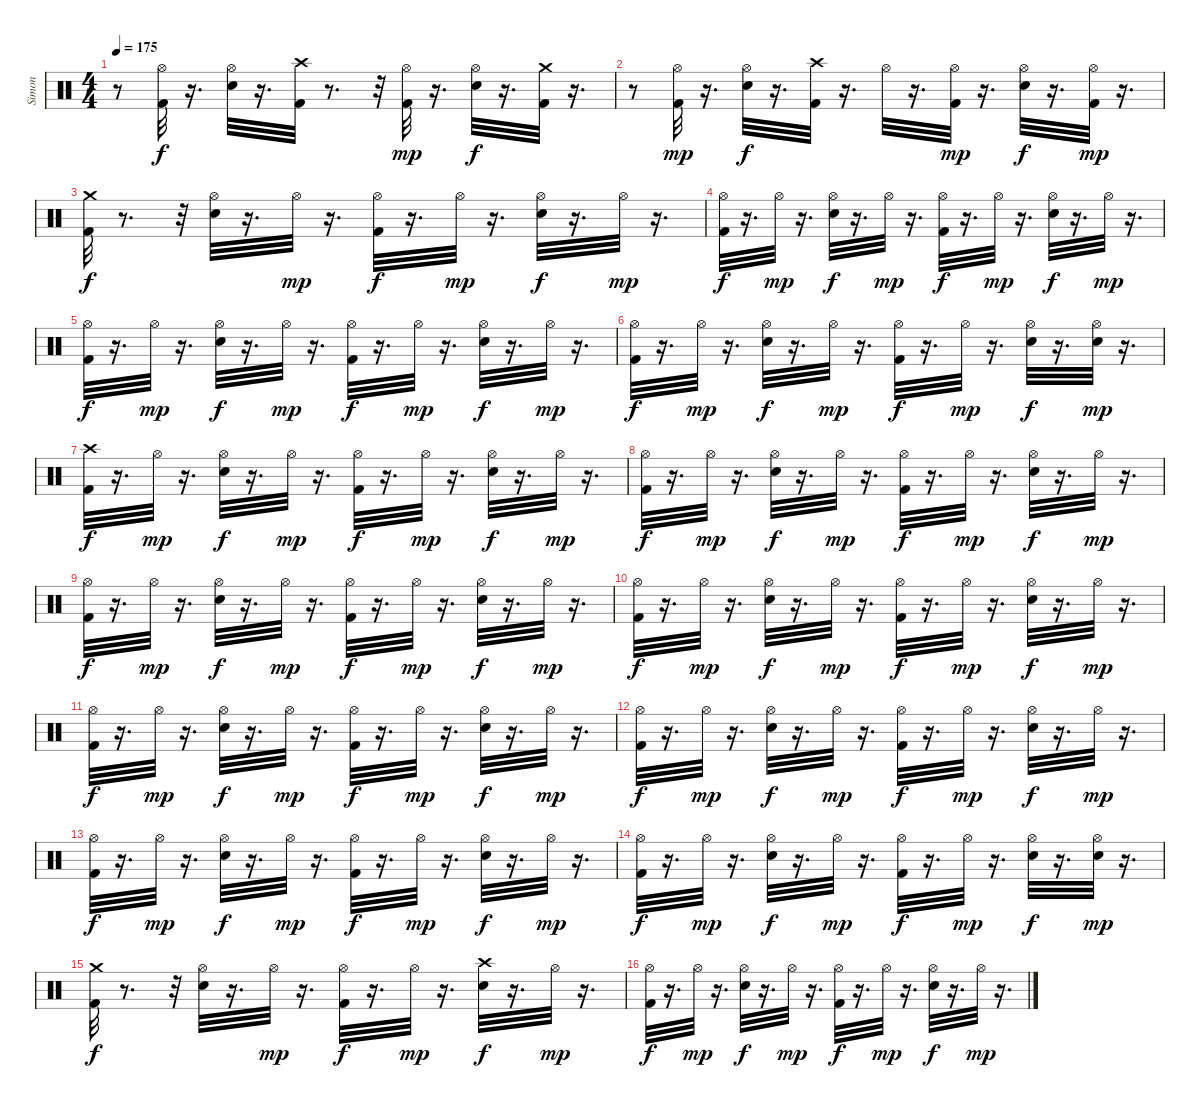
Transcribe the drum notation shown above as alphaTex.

\track ("Simon" "Simon") {instrument percussion}
\staff {score}
\articulation defaults
\ts (4 4)
\tempo 175
\clef neutral
\ks c
r.8{dy f} ("Hi-Hat (open)" "Kick (hit) 2").32 r.16{d} ("Hi-Hat (open)" "Electric Snare (hit)").32 r.16{d} ("Crash high (hit)" "Kick (hit) 2").32 r.8{d} r.32 ("Hi-Hat (open)" "Kick (hit) 2").32{dy mp} r.16{d} ("Hi-Hat (open)" "Electric Snare (hit)").32{dy f} r.16{d} ("Crash medium (hit)" "Kick (hit) 2").32 r.16{d} |
r.8 ("Hi-Hat (open)" "Kick (hit) 2").32{dy mp} r.16{d} ("Hi-Hat (open)" "Electric Snare (hit)").32{dy f} r.16{d} ("Crash high (hit)" "Kick (hit) 2").32 r.16{d} "Hi-Hat (open)".32 r.16{d} ("Hi-Hat (open)" "Kick (hit) 2").32{dy mp} r.16{d} ("Hi-Hat (open)" "Electric Snare (hit)").32{dy f} r.16{d} ("Hi-Hat (open)" "Kick (hit) 2").32{dy mp} r.16{d} |
("Crash medium (hit)" "Kick (hit) 2").32{dy f} r.8{d} r.32 ("Hi-Hat (open)" "Electric Snare (hit)").32 r.16{d} "Hi-Hat (open)".32{dy mp} r.16{d} ("Hi-Hat (open)" "Kick (hit) 2").32{dy f} r.16{d} "Hi-Hat (open)".32{dy mp} r.16{d} ("Hi-Hat (open)" "Electric Snare (hit)").32{dy f} r.16{d} "Hi-Hat (open)".32{dy mp} r.16{d} |
("Hi-Hat (open)" "Kick (hit) 2").32{dy f} r.16{d} "Hi-Hat (open)".32{dy mp} r.16{d} ("Hi-Hat (open)" "Electric Snare (hit)").32{dy f} r.16{d} "Hi-Hat (open)".32{dy mp} r.16{d} ("Hi-Hat (open)" "Kick (hit) 2").32{dy f} r.16{d} "Hi-Hat (open)".32{dy mp} r.16{d} ("Hi-Hat (open)" "Electric Snare (hit)").32{dy f} r.16{d} "Hi-Hat (open)".32{dy mp} r.16{d} |
("Hi-Hat (open)" "Kick (hit) 2").32{dy f} r.16{d} "Hi-Hat (open)".32{dy mp} r.16{d} ("Hi-Hat (open)" "Electric Snare (hit)").32{dy f} r.16{d} "Hi-Hat (open)".32{dy mp} r.16{d} ("Hi-Hat (open)" "Kick (hit) 2").32{dy f} r.16{d} "Hi-Hat (open)".32{dy mp} r.16{d} ("Hi-Hat (open)" "Electric Snare (hit)").32{dy f} r.16{d} "Hi-Hat (open)".32{dy mp} r.16{d} |
("Kick (hit) 2" "Hi-Hat (open)").32{dy f} r.16{d} "Hi-Hat (open)".32{dy mp} r.16{d} ("Electric Snare (hit)" "Hi-Hat (open)").32{dy f} r.16{d} "Hi-Hat (open)".32{dy mp} r.16{d} ("Kick (hit) 2" "Hi-Hat (open)").32{dy f} r.16{d} "Hi-Hat (open)".32{dy mp} r.16{d} ("Hi-Hat (open)" "Electric Snare (hit)").32{dy f} r.16{d} ("Electric Snare (hit)" "Hi-Hat (open)").32{dy mp} r.16{d} |
("Crash high (hit)" "Kick (hit) 2").32{dy f} r.16{d} "Hi-Hat (open)".32{dy mp} r.16{d} ("Hi-Hat (open)" "Electric Snare (hit)").32{dy f} r.16{d} "Hi-Hat (open)".32{dy mp} r.16{d} ("Hi-Hat (open)" "Kick (hit) 2").32{dy f} r.16{d} "Hi-Hat (open)".32{dy mp} r.16{d} ("Hi-Hat (open)" "Electric Snare (hit)").32{dy f} r.16{d} "Hi-Hat (open)".32{dy mp} r.16{d} |
("Hi-Hat (open)" "Kick (hit) 2").32{dy f} r.16{d} "Hi-Hat (open)".32{dy mp} r.16{d} ("Hi-Hat (open)" "Electric Snare (hit)").32{dy f} r.16{d} "Hi-Hat (open)".32{dy mp} r.16{d} ("Hi-Hat (open)" "Kick (hit) 2").32{dy f} r.16{d} "Hi-Hat (open)".32{dy mp} r.16{d} ("Hi-Hat (open)" "Electric Snare (hit)").32{dy f} r.16{d} "Hi-Hat (open)".32{dy mp} r.16{d} |
("Hi-Hat (open)" "Kick (hit) 2").32{dy f} r.16{d} "Hi-Hat (open)".32{dy mp} r.16{d} ("Hi-Hat (open)" "Electric Snare (hit)").32{dy f} r.16{d} "Hi-Hat (open)".32{dy mp} r.16{d} ("Hi-Hat (open)" "Kick (hit) 2").32{dy f} r.16{d} "Hi-Hat (open)".32{dy mp} r.16{d} ("Hi-Hat (open)" "Electric Snare (hit)").32{dy f} r.16{d} "Hi-Hat (open)".32{dy mp} r.16{d} |
("Hi-Hat (open)" "Kick (hit) 2").32{dy f} r.16{d} "Hi-Hat (open)".32{dy mp} r.16{d} ("Hi-Hat (open)" "Electric Snare (hit)").32{dy f} r.16{d} "Hi-Hat (open)".32{dy mp} r.16{d} ("Hi-Hat (open)" "Kick (hit) 2").32{dy f} r.16{d} "Hi-Hat (open)".32{dy mp} r.16{d} ("Hi-Hat (open)" "Electric Snare (hit)").32{dy f} r.16{d} "Hi-Hat (open)".32{dy mp} r.16{d} |
("Hi-Hat (open)" "Kick (hit) 2").32{dy f} r.16{d} "Hi-Hat (open)".32{dy mp} r.16{d} ("Hi-Hat (open)" "Electric Snare (hit)").32{dy f} r.16{d} "Hi-Hat (open)".32{dy mp} r.16{d} ("Hi-Hat (open)" "Kick (hit) 2").32{dy f} r.16{d} "Hi-Hat (open)".32{dy mp} r.16{d} ("Hi-Hat (open)" "Electric Snare (hit)").32{dy f} r.16{d} "Hi-Hat (open)".32{dy mp} r.16{d} |
("Hi-Hat (open)" "Kick (hit) 2").32{dy f} r.16{d} "Hi-Hat (open)".32{dy mp} r.16{d} ("Hi-Hat (open)" "Electric Snare (hit)").32{dy f} r.16{d} "Hi-Hat (open)".32{dy mp} r.16{d} ("Hi-Hat (open)" "Kick (hit) 2").32{dy f} r.16{d} "Hi-Hat (open)".32{dy mp} r.16{d} ("Hi-Hat (open)" "Electric Snare (hit)").32{dy f} r.16{d} "Hi-Hat (open)".32{dy mp} r.16{d} |
("Hi-Hat (open)" "Kick (hit) 2").32{dy f} r.16{d} "Hi-Hat (open)".32{dy mp} r.16{d} ("Hi-Hat (open)" "Electric Snare (hit)").32{dy f} r.16{d} "Hi-Hat (open)".32{dy mp} r.16{d} ("Hi-Hat (open)" "Kick (hit) 2").32{dy f} r.16{d} "Hi-Hat (open)".32{dy mp} r.16{d} ("Hi-Hat (open)" "Electric Snare (hit)").32{dy f} r.16{d} "Hi-Hat (open)".32{dy mp} r.16{d} |
("Hi-Hat (open)" "Kick (hit) 2").32{dy f} r.16{d} "Hi-Hat (open)".32{dy mp} r.16{d} ("Hi-Hat (open)" "Electric Snare (hit)").32{dy f} r.16{d} "Hi-Hat (open)".32{dy mp} r.16{d} ("Hi-Hat (open)" "Kick (hit) 2").32{dy f} r.16{d} "Hi-Hat (open)".32{dy mp} r.16{d} ("Hi-Hat (open)" "Electric Snare (hit)").32{dy f} r.16{d} ("Electric Snare (hit)" "Hi-Hat (open)").32{dy mp} r.16{d} |
("Crash medium (hit)" "Kick (hit) 2").32{dy f} r.8{d} r.32 ("Hi-Hat (open)" "Electric Snare (hit)").32 r.16{d} "Hi-Hat (open)".32{dy mp} r.16{d} ("Hi-Hat (open)" "Kick (hit) 2").32{dy f} r.16{d} "Hi-Hat (open)".32{dy mp} r.16{d} ("Crash high (hit)" "Electric Snare (hit)").32{dy f} r.16{d} "Hi-Hat (open)".32{dy mp} r.16{d} |
("Hi-Hat (open)" "Kick (hit) 2").32{dy f} r.16{d} "Hi-Hat (open)".32{dy mp} r.16{d} ("Hi-Hat (open)" "Electric Snare (hit)").32{dy f} r.16{d} "Hi-Hat (open)".32{dy mp} r.16{d} ("Hi-Hat (open)" "Kick (hit) 2").32{dy f} r.16{d} "Hi-Hat (open)".32{dy mp} r.16{d} ("Hi-Hat (open)" "Electric Snare (hit)").32{dy f} r.16{d} "Hi-Hat (open)".32{dy mp} r.16{d}
